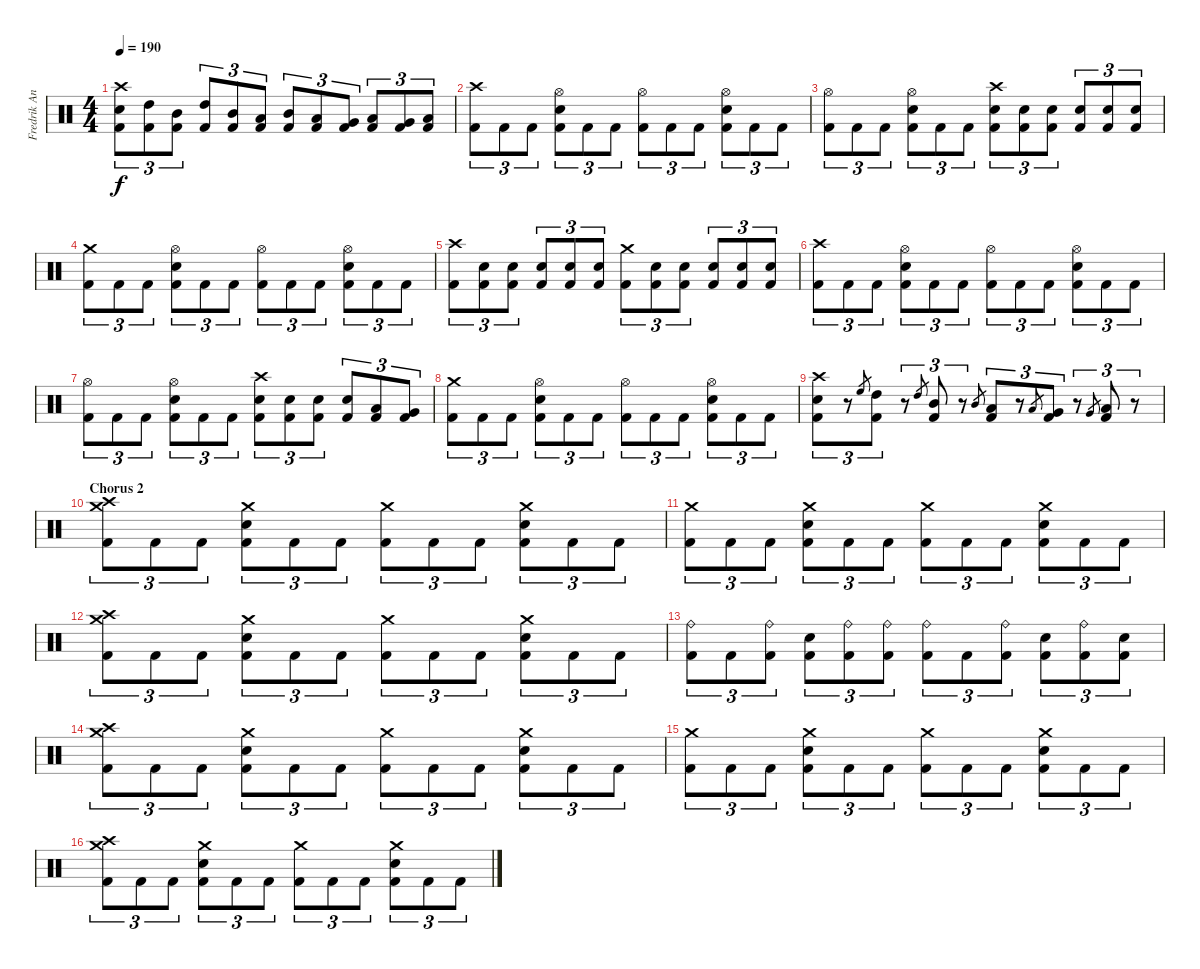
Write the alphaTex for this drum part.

\track ("Fredrik Andersson" "Fredrik An") {instrument percussion}
\staff {score}
\articulation defaults
\ts (4 4)
\tempo 190
\clef neutral
\ks c
("Crash high (hit)" "Electric Snare (hit)" "Kick (hit) 2").8{tu (3 2) dy f} ("High Tom (hit)" "Kick (hit) 2").8{tu (3 2)} ("Mid Tom (hit)" "Kick (hit) 2").8{tu (3 2)} ("High Tom (hit)" "Kick (hit) 2").8{tu (3 2)} ("Mid Tom (hit)" "Kick (hit) 2").8{tu (3 2)} ("Low Tom (hit)" "Kick (hit) 2").8{tu (3 2)} ("Mid Tom (hit)" "Kick (hit) 2").8{tu (3 2)} ("Low Tom (hit)" "Kick (hit) 2").8{tu (3 2)} ("Very Low Tom (hit)" "Kick (hit) 2").8{tu (3 2)} ("Low Tom (hit)" "Kick (hit) 2").8{tu (3 2)} ("Very Low Tom (hit)" "Kick (hit) 2").8{tu (3 2)} ("Low Floor Tom (hit)" "Kick (hit) 2").8{tu (3 2)} |
("Crash high (hit)" "Kick (hit) 2").8{tu (3 2)} "Kick (hit) 2".8{tu (3 2)} "Kick (hit) 2".8{tu (3 2)} ("Hi-Hat (open)" "Electric Snare (hit)" "Kick (hit) 2").8{tu (3 2)} "Kick (hit) 2".8{tu (3 2)} "Kick (hit) 2".8{tu (3 2)} ("Hi-Hat (open)" "Kick (hit) 2").8{tu (3 2)} "Kick (hit) 2".8{tu (3 2)} "Kick (hit) 2".8{tu (3 2)} ("Hi-Hat (open)" "Electric Snare (hit)" "Kick (hit) 2").8{tu (3 2)} "Kick (hit) 2".8{tu (3 2)} "Kick (hit) 2".8{tu (3 2)} |
("Hi-Hat (open)" "Kick (hit) 2").8{tu (3 2)} "Kick (hit) 2".8{tu (3 2)} "Kick (hit) 2".8{tu (3 2)} ("Hi-Hat (open)" "Electric Snare (hit)" "Kick (hit) 2").8{tu (3 2)} "Kick (hit) 2".8{tu (3 2)} "Kick (hit) 2".8{tu (3 2)} ("Crash high (hit)" "Electric Snare (hit)" "Kick (hit) 2").8{tu (3 2)} ("Electric Snare (hit)" "Kick (hit) 2").8{tu (3 2)} ("Electric Snare (hit)" "Kick (hit) 2").8{tu (3 2)} ("Electric Snare (hit)" "Kick (hit) 2").8{tu (3 2)} ("Electric Snare (hit)" "Kick (hit) 2").8{tu (3 2)} ("Electric Snare (hit)" "Kick (hit) 2").8{tu (3 2)} |
("Crash medium (hit)" "Kick (hit) 2").8{tu (3 2)} "Kick (hit) 2".8{tu (3 2)} "Kick (hit) 2".8{tu (3 2)} ("Hi-Hat (open)" "Electric Snare (hit)" "Kick (hit) 2").8{tu (3 2)} "Kick (hit) 2".8{tu (3 2)} "Kick (hit) 2".8{tu (3 2)} ("Hi-Hat (open)" "Kick (hit) 2").8{tu (3 2)} "Kick (hit) 2".8{tu (3 2)} "Kick (hit) 2".8{tu (3 2)} ("Hi-Hat (open)" "Electric Snare (hit)" "Kick (hit) 2").8{tu (3 2)} "Kick (hit) 2".8{tu (3 2)} "Kick (hit) 2".8{tu (3 2)} |
("Crash high (hit)" "Kick (hit) 2").8{tu (3 2)} ("Electric Snare (hit)" "Kick (hit) 2").8{tu (3 2)} ("Electric Snare (hit)" "Kick (hit) 2").8{tu (3 2)} ("Electric Snare (hit)" "Kick (hit) 2").8{tu (3 2)} ("Electric Snare (hit)" "Kick (hit) 2").8{tu (3 2)} ("Electric Snare (hit)" "Kick (hit) 2").8{tu (3 2)} ("Crash medium (hit)" "Kick (hit) 2").8{tu (3 2)} ("Electric Snare (hit)" "Kick (hit) 2").8{tu (3 2)} ("Electric Snare (hit)" "Kick (hit) 2").8{tu (3 2)} ("Electric Snare (hit)" "Kick (hit) 2").8{tu (3 2)} ("Electric Snare (hit)" "Kick (hit) 2").8{tu (3 2)} ("Electric Snare (hit)" "Kick (hit) 2").8{tu (3 2)} |
("Crash high (hit)" "Kick (hit) 2").8{tu (3 2)} "Kick (hit) 2".8{tu (3 2)} "Kick (hit) 2".8{tu (3 2)} ("Hi-Hat (open)" "Electric Snare (hit)" "Kick (hit) 2").8{tu (3 2)} "Kick (hit) 2".8{tu (3 2)} "Kick (hit) 2".8{tu (3 2)} ("Hi-Hat (open)" "Kick (hit) 2").8{tu (3 2)} "Kick (hit) 2".8{tu (3 2)} "Kick (hit) 2".8{tu (3 2)} ("Hi-Hat (open)" "Electric Snare (hit)" "Kick (hit) 2").8{tu (3 2)} "Kick (hit) 2".8{tu (3 2)} "Kick (hit) 2".8{tu (3 2)} |
("Hi-Hat (open)" "Kick (hit) 2").8{tu (3 2)} "Kick (hit) 2".8{tu (3 2)} "Kick (hit) 2".8{tu (3 2)} ("Hi-Hat (open)" "Electric Snare (hit)" "Kick (hit) 2").8{tu (3 2)} "Kick (hit) 2".8{tu (3 2)} "Kick (hit) 2".8{tu (3 2)} ("Crash high (hit)" "Electric Snare (hit)" "Kick (hit) 2").8{tu (3 2)} ("Electric Snare (hit)" "Kick (hit) 2").8{tu (3 2)} ("Electric Snare (hit)" "Kick (hit) 2").8{tu (3 2)} ("Electric Snare (hit)" "Kick (hit) 2").8{tu (3 2)} ("Low Tom (hit)" "Kick (hit) 2").8{tu (3 2)} ("Very Low Tom (hit)" "Kick (hit) 2").8{tu (3 2)} |
("Crash medium (hit)" "Kick (hit) 2").8{tu (3 2)} "Kick (hit) 2".8{tu (3 2)} "Kick (hit) 2".8{tu (3 2)} ("Hi-Hat (open)" "Electric Snare (hit)" "Kick (hit) 2").8{tu (3 2)} "Kick (hit) 2".8{tu (3 2)} "Kick (hit) 2".8{tu (3 2)} ("Hi-Hat (open)" "Kick (hit) 2").8{tu (3 2)} "Kick (hit) 2".8{tu (3 2)} "Kick (hit) 2".8{tu (3 2)} ("Hi-Hat (open)" "Electric Snare (hit)" "Kick (hit) 2").8{tu (3 2)} "Kick (hit) 2".8{tu (3 2)} "Kick (hit) 2".8{tu (3 2)} |
("Crash high (hit)" "Electric Snare (hit)" "Kick (hit) 2").8{tu (3 2)} r.8{tu (3 2)} "High Floor Tom (hit)".8{gr} ("High Tom (hit)" "Kick (hit) 2").8{tu (3 2)} r.8{tu (3 2)} "High Tom (hit)".8{gr} ("Mid Tom (hit)" "Kick (hit) 2").8{tu (3 2)} r.8{tu (3 2)} "Mid Tom (hit)".8{gr} ("Low Tom (hit)" "Kick (hit) 2").8{tu (3 2)} r.8{tu (3 2)} "Low Tom (hit)".8{gr} ("Very Low Tom (hit)" "Kick (hit) 2").8{tu (3 2)} r.8{tu (3 2)} "Very Low Tom (hit)".8{gr} ("Low Floor Tom (hit)" "Kick (hit) 2").8{tu (3 2)} r.8{tu (3 2)} |
\section ("" "Chorus 2")
("Crash medium (hit)" "Crash high (hit)" "Kick (hit) 2").8{tu (3 2)} "Kick (hit) 2".8{tu (3 2)} "Kick (hit) 2".8{tu (3 2)} ("Crash medium (hit)" "Electric Snare (hit)" "Kick (hit) 2").8{tu (3 2)} "Kick (hit) 2".8{tu (3 2)} "Kick (hit) 2".8{tu (3 2)} ("Crash medium (hit)" "Kick (hit) 2").8{tu (3 2)} "Kick (hit) 2".8{tu (3 2)} "Kick (hit) 2".8{tu (3 2)} ("Crash medium (hit)" "Electric Snare (hit)" "Kick (hit) 2").8{tu (3 2)} "Kick (hit) 2".8{tu (3 2)} "Kick (hit) 2".8{tu (3 2)} |
("Crash medium (hit)" "Kick (hit) 2").8{tu (3 2)} "Kick (hit) 2".8{tu (3 2)} "Kick (hit) 2".8{tu (3 2)} ("Crash medium (hit)" "Electric Snare (hit)" "Kick (hit) 2").8{tu (3 2)} "Kick (hit) 2".8{tu (3 2)} "Kick (hit) 2".8{tu (3 2)} ("Crash medium (hit)" "Kick (hit) 2").8{tu (3 2)} "Kick (hit) 2".8{tu (3 2)} "Kick (hit) 2".8{tu (3 2)} ("Crash medium (hit)" "Electric Snare (hit)" "Kick (hit) 2").8{tu (3 2)} "Kick (hit) 2".8{tu (3 2)} "Kick (hit) 2".8{tu (3 2)} |
("Crash medium (hit)" "Crash high (hit)" "Kick (hit) 2").8{tu (3 2)} "Kick (hit) 2".8{tu (3 2)} "Kick (hit) 2".8{tu (3 2)} ("Crash medium (hit)" "Electric Snare (hit)" "Kick (hit) 2").8{tu (3 2)} "Kick (hit) 2".8{tu (3 2)} "Kick (hit) 2".8{tu (3 2)} ("Crash medium (hit)" "Kick (hit) 2").8{tu (3 2)} "Kick (hit) 2".8{tu (3 2)} "Kick (hit) 2".8{tu (3 2)} ("Crash medium (hit)" "Electric Snare (hit)" "Kick (hit) 2").8{tu (3 2)} "Kick (hit) 2".8{tu (3 2)} "Kick (hit) 2".8{tu (3 2)} |
("Ride (bell)" "Kick (hit) 2").8{tu (3 2)} "Kick (hit) 2".8{tu (3 2)} ("Ride (bell)" "Kick (hit) 2").8{tu (3 2)} ("Electric Snare (hit)" "Kick (hit) 2").8{tu (3 2)} ("Ride (bell)" "Kick (hit) 2").8{tu (3 2)} ("Ride (bell)" "Kick (hit) 2").8{tu (3 2)} ("Ride (bell)" "Kick (hit) 2").8{tu (3 2)} "Kick (hit) 2".8{tu (3 2)} ("Ride (bell)" "Kick (hit) 2").8{tu (3 2)} ("Electric Snare (hit)" "Kick (hit) 2").8{tu (3 2)} ("Ride (bell)" "Kick (hit) 2").8{tu (3 2)} ("Electric Snare (hit)" "Kick (hit) 2").8{tu (3 2)} |
("Crash medium (hit)" "Crash high (hit)" "Kick (hit) 2").8{tu (3 2)} "Kick (hit) 2".8{tu (3 2)} "Kick (hit) 2".8{tu (3 2)} ("Crash medium (hit)" "Electric Snare (hit)" "Kick (hit) 2").8{tu (3 2)} "Kick (hit) 2".8{tu (3 2)} "Kick (hit) 2".8{tu (3 2)} ("Crash medium (hit)" "Kick (hit) 2").8{tu (3 2)} "Kick (hit) 2".8{tu (3 2)} "Kick (hit) 2".8{tu (3 2)} ("Crash medium (hit)" "Electric Snare (hit)" "Kick (hit) 2").8{tu (3 2)} "Kick (hit) 2".8{tu (3 2)} "Kick (hit) 2".8{tu (3 2)} |
("Crash medium (hit)" "Kick (hit) 2").8{tu (3 2)} "Kick (hit) 2".8{tu (3 2)} "Kick (hit) 2".8{tu (3 2)} ("Crash medium (hit)" "Electric Snare (hit)" "Kick (hit) 2").8{tu (3 2)} "Kick (hit) 2".8{tu (3 2)} "Kick (hit) 2".8{tu (3 2)} ("Crash medium (hit)" "Kick (hit) 2").8{tu (3 2)} "Kick (hit) 2".8{tu (3 2)} "Kick (hit) 2".8{tu (3 2)} ("Crash medium (hit)" "Electric Snare (hit)" "Kick (hit) 2").8{tu (3 2)} "Kick (hit) 2".8{tu (3 2)} "Kick (hit) 2".8{tu (3 2)} |
("Crash medium (hit)" "Crash high (hit)" "Kick (hit) 2").8{tu (3 2)} "Kick (hit) 2".8{tu (3 2)} "Kick (hit) 2".8{tu (3 2)} ("Crash medium (hit)" "Electric Snare (hit)" "Kick (hit) 2").8{tu (3 2)} "Kick (hit) 2".8{tu (3 2)} "Kick (hit) 2".8{tu (3 2)} ("Crash medium (hit)" "Kick (hit) 2").8{tu (3 2)} "Kick (hit) 2".8{tu (3 2)} "Kick (hit) 2".8{tu (3 2)} ("Crash medium (hit)" "Electric Snare (hit)" "Kick (hit) 2").8{tu (3 2)} "Kick (hit) 2".8{tu (3 2)} "Kick (hit) 2".8{tu (3 2)}
